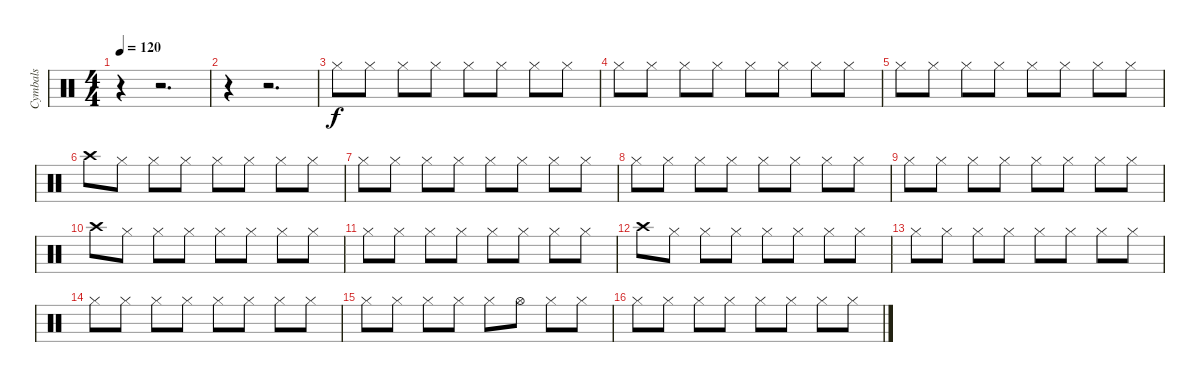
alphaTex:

\track ("Cymbals" "Cymbals") {instrument percussion}
\staff {score}
\articulation defaults
\ts (4 4)
\tempo 120
\clef neutral
\ks c
r.4{dy f} r.2{d} |
r.4 r.2{d} |
"Hi-Hat (closed)".8 "Hi-Hat (closed)".8 "Hi-Hat (closed)".8 "Hi-Hat (closed)".8 "Hi-Hat (closed)".8 "Hi-Hat (closed)".8 "Hi-Hat (closed)".8 "Hi-Hat (closed)".8 |
"Hi-Hat (closed)".8 "Hi-Hat (closed)".8 "Hi-Hat (closed)".8 "Hi-Hat (closed)".8 "Hi-Hat (closed)".8 "Hi-Hat (closed)".8 "Hi-Hat (closed)".8 "Hi-Hat (closed)".8 |
"Hi-Hat (closed)".8 "Hi-Hat (closed)".8 "Hi-Hat (closed)".8 "Hi-Hat (closed)".8 "Hi-Hat (closed)".8 "Hi-Hat (closed)".8 "Hi-Hat (closed)".8 "Hi-Hat (closed)".8 |
"Crash high (hit)".8 "Hi-Hat (closed)".8 "Hi-Hat (closed)".8 "Hi-Hat (closed)".8 "Hi-Hat (closed)".8 "Hi-Hat (closed)".8 "Hi-Hat (closed)".8 "Hi-Hat (closed)".8 |
"Hi-Hat (closed)".8 "Hi-Hat (closed)".8 "Hi-Hat (closed)".8 "Hi-Hat (closed)".8 "Hi-Hat (closed)".8 "Hi-Hat (closed)".8 "Hi-Hat (closed)".8 "Hi-Hat (closed)".8 |
"Hi-Hat (closed)".8 "Hi-Hat (closed)".8 "Hi-Hat (closed)".8 "Hi-Hat (closed)".8 "Hi-Hat (closed)".8 "Hi-Hat (closed)".8 "Hi-Hat (closed)".8 "Hi-Hat (closed)".8 |
"Hi-Hat (closed)".8 "Hi-Hat (closed)".8 "Hi-Hat (closed)".8 "Hi-Hat (closed)".8 "Hi-Hat (closed)".8 "Hi-Hat (closed)".8 "Hi-Hat (closed)".8 "Hi-Hat (closed)".8 |
"Crash high (hit)".8 "Hi-Hat (closed)".8 "Hi-Hat (closed)".8 "Hi-Hat (closed)".8 "Hi-Hat (closed)".8 "Hi-Hat (closed)".8 "Hi-Hat (closed)".8 "Hi-Hat (closed)".8 |
"Hi-Hat (closed)".8 "Hi-Hat (closed)".8 "Hi-Hat (closed)".8 "Hi-Hat (closed)".8 "Hi-Hat (closed)".8 "Hi-Hat (closed)".8 "Hi-Hat (closed)".8 "Hi-Hat (closed)".8 |
"Crash high (hit)".8 "Hi-Hat (closed)".8 "Hi-Hat (closed)".8 "Hi-Hat (closed)".8 "Hi-Hat (closed)".8 "Hi-Hat (closed)".8 "Hi-Hat (closed)".8 "Hi-Hat (closed)".8 |
"Hi-Hat (closed)".8 "Hi-Hat (closed)".8 "Hi-Hat (closed)".8 "Hi-Hat (closed)".8 "Hi-Hat (closed)".8 "Hi-Hat (closed)".8 "Hi-Hat (closed)".8 "Hi-Hat (closed)".8 |
"Hi-Hat (closed)".8 "Hi-Hat (closed)".8 "Hi-Hat (closed)".8 "Hi-Hat (closed)".8 "Hi-Hat (closed)".8 "Hi-Hat (closed)".8 "Hi-Hat (closed)".8 "Hi-Hat (closed)".8 |
"Hi-Hat (closed)".8 "Hi-Hat (closed)".8 "Hi-Hat (closed)".8 "Hi-Hat (closed)".8 "Hi-Hat (closed)".8 "Hi-Hat (open)".8 "Hi-Hat (closed)".8 "Hi-Hat (closed)".8 |
"Hi-Hat (closed)".8 "Hi-Hat (closed)".8 "Hi-Hat (closed)".8 "Hi-Hat (closed)".8 "Hi-Hat (closed)".8 "Hi-Hat (closed)".8 "Hi-Hat (closed)".8 "Hi-Hat (closed)".8
